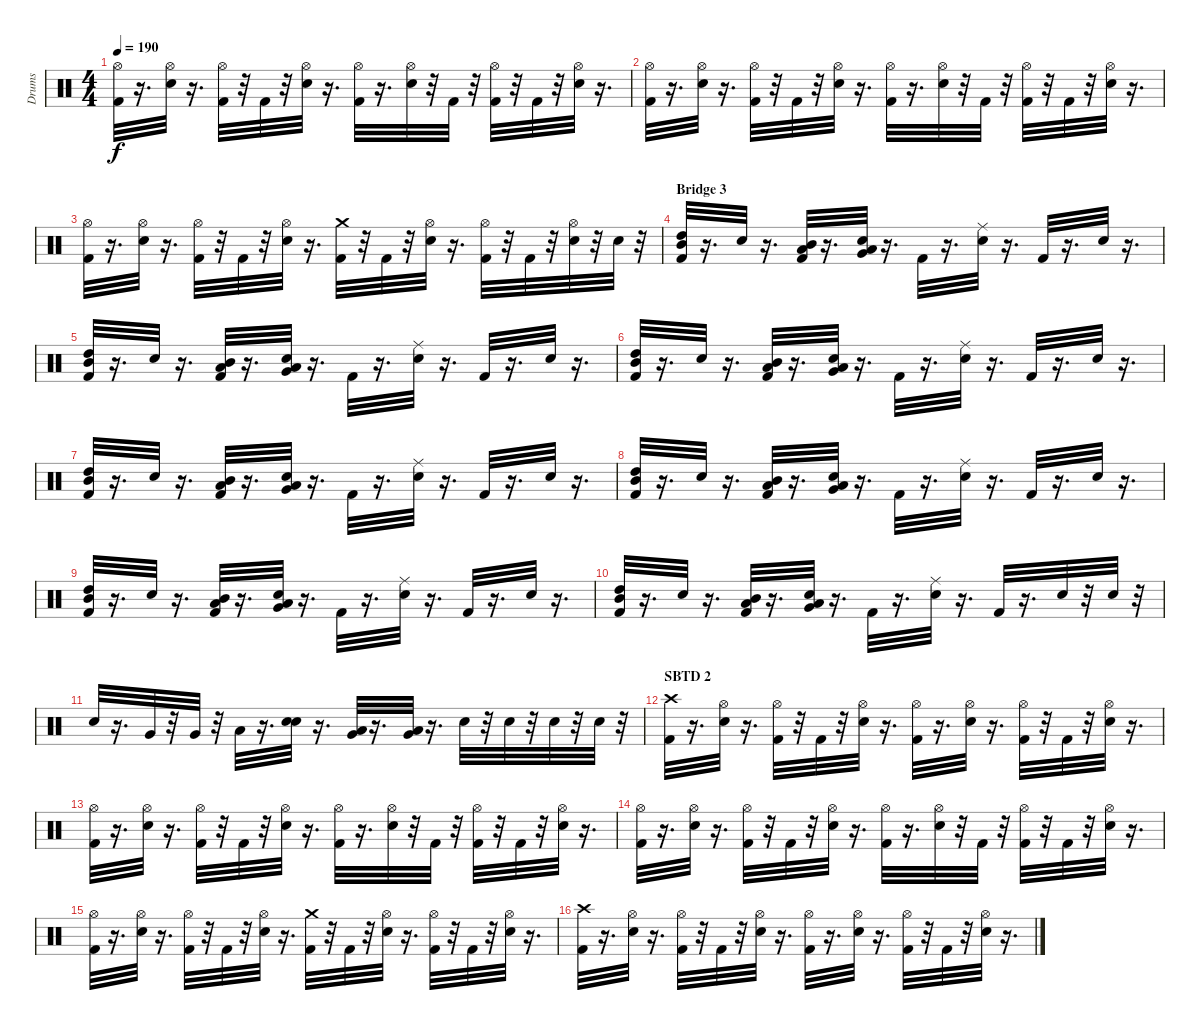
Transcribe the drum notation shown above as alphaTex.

\track ("Drums" "Drums") {instrument percussion}
\staff {score}
\articulation defaults
\ts (4 4)
\tempo 190
\clef neutral
\ks c
("Hi-Hat (open)" "Kick (hit) 2").32{dy f} r.16{d} ("Snare (hit) 2" "Hi-Hat (open)").32 r.16{d} ("Kick (hit) 2" "Hi-Hat (open)").32 r.32 "Kick (hit) 2".32 r.32 ("Snare (hit) 2" "Hi-Hat (open)").32 r.16{d} ("Kick (hit) 2" "Hi-Hat (open)").32 r.16{d} ("Hi-Hat (open)" "Snare (hit) 2").32 r.32 "Kick (hit) 2".32 r.32 ("Kick (hit) 2" "Hi-Hat (open)").32 r.32 "Kick (hit) 2".32 r.32 ("Snare (hit) 2" "Hi-Hat (open)").32 r.16{d} |
("Kick (hit) 2" "Hi-Hat (open)").32 r.16{d} ("Snare (hit) 2" "Hi-Hat (open)").32 r.16{d} ("Kick (hit) 2" "Hi-Hat (open)").32 r.32 "Kick (hit) 2".32 r.32 ("Hi-Hat (open)" "Snare (hit) 2").32 r.16{d} ("Kick (hit) 2" "Hi-Hat (open)").32 r.16{d} ("Hi-Hat (open)" "Snare (hit) 2").32 r.32 "Kick (hit) 2".32 r.32 ("Kick (hit) 2" "Hi-Hat (open)").32 r.32 "Kick (hit) 2".32 r.32 ("Hi-Hat (open)" "Snare (hit) 2").32 r.16{d} |
("Kick (hit) 2" "Hi-Hat (open)").32 r.16{d} ("Hi-Hat (open)" "Snare (hit) 2").32 r.16{d} ("Hi-Hat (open)" "Kick (hit) 2").32 r.32 "Kick (hit) 2".32 r.32 ("Snare (hit) 2" "Hi-Hat (open)").32 r.16{d} ("Crash medium (hit)" "Kick (hit) 2").32 r.32 "Kick (hit) 2".32 r.32 ("Snare (hit) 2" "Hi-Hat (open)").32 r.16{d} ("Hi-Hat (open)" "Kick (hit) 2").32 r.32 "Kick (hit) 2".32 r.32 ("Snare (hit) 2" "Hi-Hat (open)").32 r.32 "Snare (hit) 2".32 r.32 |
\section ("" "Bridge 3")
("High Tom (hit)" "Mid Tom (hit)" "Kick (hit) 2").32 r.16{d} "Snare (hit) 2".32 r.16{d} ("Mid Tom (hit)" "Kick (hit) 2" "Low Tom (hit)").32 r.16{d} ("Low Tom (hit)" "Very Low Tom (hit)" "Snare (hit) 2").32 r.16{d} "Kick (hit) 2".32 r.16{d} ("Snare (hit) 2" "Ride (middle)").32 r.16{d} "Kick (hit) 2".32 r.16{d} "Snare (hit) 2".32 r.16{d} |
("Mid Tom (hit)" "High Tom (hit)" "Kick (hit) 2").32 r.16{d} "Snare (hit) 2".32 r.16{d} ("Mid Tom (hit)" "Kick (hit) 2" "Low Tom (hit)").32 r.16{d} ("Very Low Tom (hit)" "Snare (hit) 2" "Low Tom (hit)").32 r.16{d} "Kick (hit) 2".32 r.16{d} ("Ride (middle)" "Snare (hit) 2").32 r.16{d} "Kick (hit) 2".32 r.16{d} "Snare (hit) 2".32 r.16{d} |
("High Tom (hit)" "Mid Tom (hit)" "Kick (hit) 2").32 r.16{d} "Snare (hit) 2".32 r.16{d} ("Kick (hit) 2" "Low Tom (hit)" "Mid Tom (hit)").32 r.16{d} ("Low Tom (hit)" "Very Low Tom (hit)" "Snare (hit) 2").32 r.16{d} "Kick (hit) 2".32 r.16{d} ("Snare (hit) 2" "Ride (middle)").32 r.16{d} "Kick (hit) 2".32 r.16{d} "Snare (hit) 2".32 r.16{d} |
("Mid Tom (hit)" "Kick (hit) 2" "High Tom (hit)").32 r.16{d} "Snare (hit) 2".32 r.16{d} ("Mid Tom (hit)" "Kick (hit) 2" "Low Tom (hit)").32 r.16{d} ("Low Tom (hit)" "Very Low Tom (hit)" "Snare (hit) 2").32 r.16{d} "Kick (hit) 2".32 r.16{d} ("Ride (middle)" "Snare (hit) 2").32 r.16{d} "Kick (hit) 2".32 r.16{d} "Snare (hit) 2".32 r.16{d} |
("Mid Tom (hit)" "High Tom (hit)" "Kick (hit) 2").32 r.16{d} "Snare (hit) 2".32 r.16{d} ("Mid Tom (hit)" "Low Tom (hit)" "Kick (hit) 2").32 r.16{d} ("Low Tom (hit)" "Snare (hit) 2" "Very Low Tom (hit)").32 r.16{d} "Kick (hit) 2".32 r.16{d} ("Snare (hit) 2" "Ride (middle)").32 r.16{d} "Kick (hit) 2".32 r.16{d} "Snare (hit) 2".32 r.16{d} |
("High Tom (hit)" "Kick (hit) 2" "Mid Tom (hit)").32 r.16{d} "Snare (hit) 2".32 r.16{d} ("Kick (hit) 2" "Low Tom (hit)" "Mid Tom (hit)").32 r.16{d} ("Low Tom (hit)" "Snare (hit) 2" "Very Low Tom (hit)").32 r.16{d} "Kick (hit) 2".32 r.16{d} ("Snare (hit) 2" "Ride (middle)").32 r.16{d} "Kick (hit) 2".32 r.16{d} "Snare (hit) 2".32 r.16{d} |
("High Tom (hit)" "Kick (hit) 2" "Mid Tom (hit)").32 r.16{d} "Snare (hit) 2".32 r.16{d} ("Kick (hit) 2" "Low Tom (hit)" "Mid Tom (hit)").32 r.16{d} ("Snare (hit) 2" "Very Low Tom (hit)" "Low Tom (hit)").32 r.16{d} "Kick (hit) 2".32 r.16{d} ("Ride (middle)" "Snare (hit) 2").32 r.16{d} "Kick (hit) 2".32 r.16{d} "Snare (hit) 2".32 r.32 "Snare (hit) 2".32 r.32 |
"Snare (hit) 2".32 r.16{d} "Very Low Tom (hit)".32 r.32 "Very Low Tom (hit)".32 r.32 "Low Floor Tom (hit)".32 r.16{d} ("Electric Snare (hit)" "Snare (hit) 2").32 r.16{d} ("Very Low Tom (hit)" "Low Floor Tom (hit)").32 r.16{d} ("Very Low Tom (hit)" "Low Floor Tom (hit)").32 r.16{d} "Snare (hit) 2".32 r.32 "Snare (hit) 2".32 r.32 "Snare (hit) 2".32 r.32 "Snare (hit) 2".32 r.32 |
\section ("" "SBTD 2")
("Kick (hit) 2" "Crash high (hit)").32 r.16{d} ("Hi-Hat (open)" "Snare (hit) 2").32 r.16{d} ("Kick (hit) 2" "Hi-Hat (open)").32 r.32 "Kick (hit) 2".32 r.32 ("Hi-Hat (open)" "Snare (hit) 2").32 r.16{d} ("Kick (hit) 2" "Hi-Hat (open)").32 r.16{d} ("Hi-Hat (open)" "Snare (hit) 2").32 r.16{d} ("Hi-Hat (open)" "Kick (hit) 2").32 r.32 "Kick (hit) 2".32 r.32 ("Hi-Hat (open)" "Snare (hit) 2").32 r.16{d} |
("Kick (hit) 2" "Hi-Hat (open)").32 r.16{d} ("Snare (hit) 2" "Hi-Hat (open)").32 r.16{d} ("Kick (hit) 2" "Hi-Hat (open)").32 r.32 "Kick (hit) 2".32 r.32 ("Snare (hit) 2" "Hi-Hat (open)").32 r.16{d} ("Kick (hit) 2" "Hi-Hat (open)").32 r.16{d} ("Hi-Hat (open)" "Snare (hit) 2").32 r.32 "Kick (hit) 2".32 r.32 ("Hi-Hat (open)" "Kick (hit) 2").32 r.32 "Kick (hit) 2".32 r.32 ("Snare (hit) 2" "Hi-Hat (open)").32 r.16{d} |
("Kick (hit) 2" "Hi-Hat (open)").32 r.16{d} ("Snare (hit) 2" "Hi-Hat (open)").32 r.16{d} ("Hi-Hat (open)" "Kick (hit) 2").32 r.32 "Kick (hit) 2".32 r.32 ("Hi-Hat (open)" "Snare (hit) 2").32 r.16{d} ("Kick (hit) 2" "Hi-Hat (open)").32 r.16{d} ("Hi-Hat (open)" "Snare (hit) 2").32 r.32 "Kick (hit) 2".32 r.32 ("Kick (hit) 2" "Hi-Hat (open)").32 r.32 "Kick (hit) 2".32 r.32 ("Snare (hit) 2" "Hi-Hat (open)").32 r.16{d} |
("Hi-Hat (open)" "Kick (hit) 2").32 r.16{d} ("Snare (hit) 2" "Hi-Hat (open)").32 r.16{d} ("Hi-Hat (open)" "Kick (hit) 2").32 r.32 "Kick (hit) 2".32 r.32 ("Hi-Hat (open)" "Snare (hit) 2").32 r.16{d} ("Crash medium (hit)" "Kick (hit) 2").32 r.32 "Kick (hit) 2".32 r.32 ("Snare (hit) 2" "Hi-Hat (open)").32 r.16{d} ("Hi-Hat (open)" "Kick (hit) 2").32 r.32 "Kick (hit) 2".32 r.32 ("Hi-Hat (open)" "Snare (hit) 2").32 r.16{d} |
("Kick (hit) 2" "Crash high (hit)").32 r.16{d} ("Hi-Hat (open)" "Snare (hit) 2").32 r.16{d} ("Kick (hit) 2" "Hi-Hat (open)").32 r.32 "Kick (hit) 2".32 r.32 ("Snare (hit) 2" "Hi-Hat (open)").32 r.16{d} ("Kick (hit) 2" "Hi-Hat (open)").32 r.16{d} ("Hi-Hat (open)" "Snare (hit) 2").32 r.16{d} ("Kick (hit) 2" "Hi-Hat (open)").32 r.32 "Kick (hit) 2".32 r.32 ("Snare (hit) 2" "Hi-Hat (open)").32 r.16{d}
